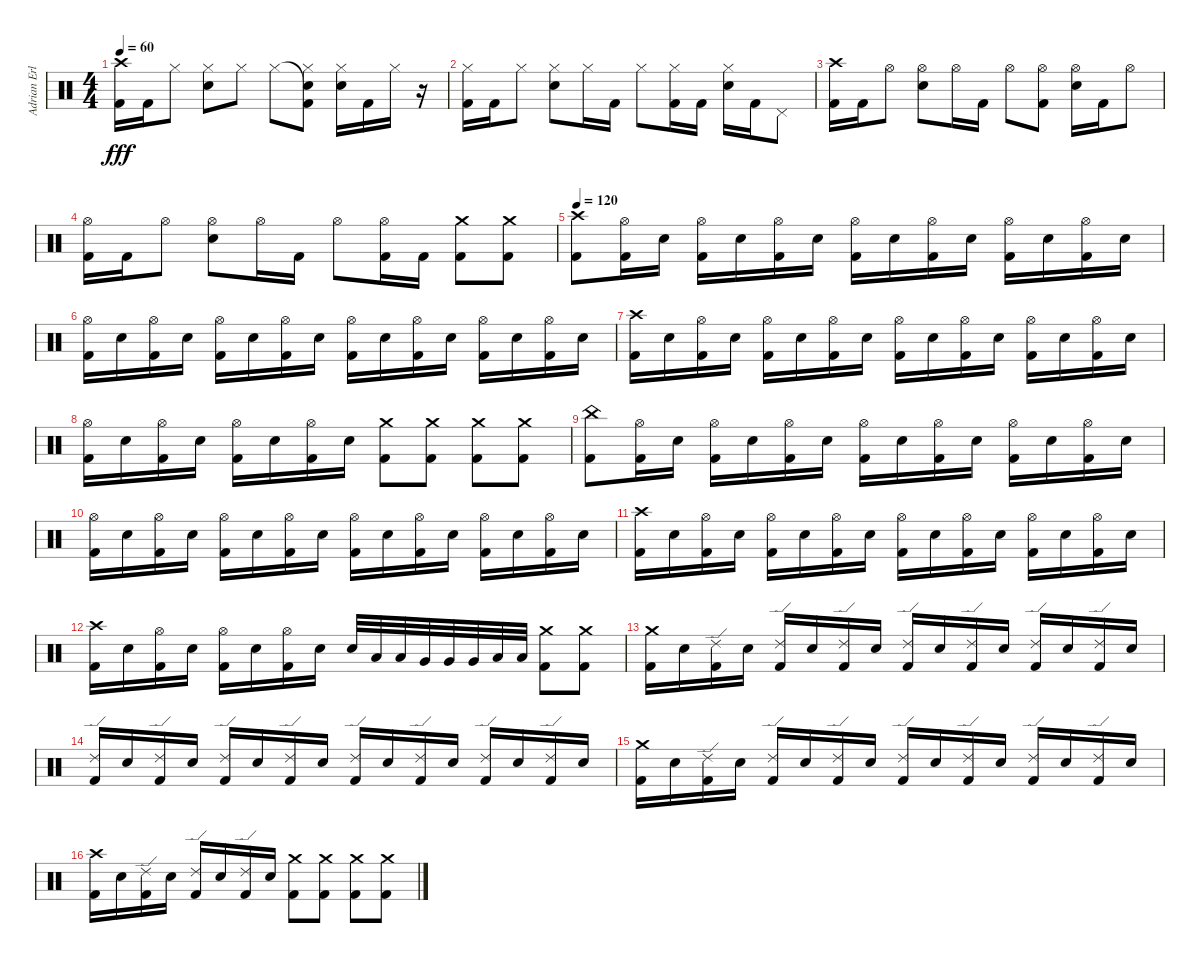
\track ("Adrian Erlandsson" "Adrian Erl") {instrument percussion}
\staff {score}
\articulation defaults
\ts (4 4)
\tempo 60
\clef neutral
\ks c
("Crash high (hit)" "Kick (hit) 2").16{dy fff} "Kick (hit) 2".16 "Hi-Hat (closed)".8 ("Hi-Hat (closed)" "Electric Snare (hit)").8 "Hi-Hat (closed)".8 "Hi-Hat (closed)".8 ("Snare (hit)"{t} "Hi-Hat (closed)" "Kick (hit) 2").8 ("Hi-Hat (closed)" "Electric Snare (hit)").16 "Kick (hit) 2".16 "Hi-Hat (closed)".16 r.16 |
("Hi-Hat (closed)" "Kick (hit) 2").16 "Kick (hit) 2".16 "Hi-Hat (closed)".8 ("Hi-Hat (closed)" "Electric Snare (hit)").8 "Hi-Hat (closed)".16 "Kick (hit) 2".16 "Hi-Hat (closed)".8 ("Hi-Hat (closed)" "Kick (hit) 2").16 "Kick (hit) 2".16 ("Hi-Hat (closed)" "Electric Snare (hit)").16 "Kick (hit) 2".16 "Pedal Hi-Hat (hit)".8 |
("Crash high (hit)" "Kick (hit) 2").16 "Kick (hit) 2".16 "Hi-Hat (open)".8 ("Hi-Hat (open)" "Electric Snare (hit)").8 "Hi-Hat (open)".16 "Kick (hit) 2".16 "Hi-Hat (open)".8 ("Hi-Hat (open)" "Kick (hit) 2").8 ("Hi-Hat (open)" "Electric Snare (hit)").16 "Kick (hit) 2".16 "Hi-Hat (open)".8 |
("Hi-Hat (open)" "Kick (hit) 2").16 "Kick (hit) 2".16 "Hi-Hat (open)".8 ("Hi-Hat (open)" "Electric Snare (hit)").8 "Hi-Hat (open)".16 "Kick (hit) 2".16 "Hi-Hat (open)".8 ("Hi-Hat (open)" "Kick (hit) 2").16 "Kick (hit) 2".16 ("Crash medium (hit)" "Kick (hit) 2").8 ("Crash medium (hit)" "Kick (hit) 2").8 |
\tempo 120
("Crash high (hit)" "Kick (hit) 2").8 ("Hi-Hat (open)" "Kick (hit) 2").16 "Electric Snare (hit)".16 ("Hi-Hat (open)" "Kick (hit) 2").16 "Electric Snare (hit)".16 ("Hi-Hat (open)" "Kick (hit) 2").16 "Electric Snare (hit)".16 ("Hi-Hat (open)" "Kick (hit) 2").16 "Electric Snare (hit)".16 ("Hi-Hat (open)" "Kick (hit) 2").16 "Electric Snare (hit)".16 ("Hi-Hat (open)" "Kick (hit) 2").16 "Electric Snare (hit)".16 ("Hi-Hat (open)" "Kick (hit) 2").16 "Electric Snare (hit)".16 |
("Hi-Hat (open)" "Kick (hit) 2").16 "Electric Snare (hit)".16 ("Hi-Hat (open)" "Kick (hit) 2").16 "Electric Snare (hit)".16 ("Hi-Hat (open)" "Kick (hit) 2").16 "Electric Snare (hit)".16 ("Hi-Hat (open)" "Kick (hit) 2").16 "Electric Snare (hit)".16 ("Hi-Hat (open)" "Kick (hit) 2").16 "Electric Snare (hit)".16 ("Hi-Hat (open)" "Kick (hit) 2").16 "Electric Snare (hit)".16 ("Hi-Hat (open)" "Kick (hit) 2").16 "Electric Snare (hit)".16 ("Hi-Hat (open)" "Kick (hit) 2").16 "Electric Snare (hit)".16 |
("Crash high (hit)" "Kick (hit) 2").16 "Electric Snare (hit)".16 ("Hi-Hat (open)" "Kick (hit) 2").16 "Electric Snare (hit)".16 ("Hi-Hat (open)" "Kick (hit) 2").16 "Electric Snare (hit)".16 ("Hi-Hat (open)" "Kick (hit) 2").16 "Electric Snare (hit)".16 ("Hi-Hat (open)" "Kick (hit) 2").16 "Electric Snare (hit)".16 ("Hi-Hat (open)" "Kick (hit) 2").16 "Electric Snare (hit)".16 ("Hi-Hat (open)" "Kick (hit) 2").16 "Electric Snare (hit)".16 ("Hi-Hat (open)" "Kick (hit) 2").16 "Electric Snare (hit)".16 |
("Hi-Hat (open)" "Kick (hit) 2").16 "Electric Snare (hit)".16 ("Hi-Hat (open)" "Kick (hit) 2").16 "Electric Snare (hit)".16 ("Hi-Hat (open)" "Kick (hit) 2").16 "Electric Snare (hit)".16 ("Hi-Hat (open)" "Kick (hit) 2").16 "Electric Snare (hit)".16 ("Crash medium (hit)" "Kick (hit) 2").8 ("Crash medium (hit)" "Kick (hit) 2").8 ("Crash medium (hit)" "Kick (hit) 2").8 ("Crash medium (hit)" "Kick (hit) 2").8 |
("China (hit)" "Kick (hit) 2").8 ("Hi-Hat (open)" "Kick (hit) 2").16 "Electric Snare (hit)".16 ("Hi-Hat (open)" "Kick (hit) 2").16 "Electric Snare (hit)".16 ("Hi-Hat (open)" "Kick (hit) 2").16 "Electric Snare (hit)".16 ("Hi-Hat (open)" "Kick (hit) 2").16 "Electric Snare (hit)".16 ("Hi-Hat (open)" "Kick (hit) 2").16 "Electric Snare (hit)".16 ("Hi-Hat (open)" "Kick (hit) 2").16 "Electric Snare (hit)".16 ("Hi-Hat (open)" "Kick (hit) 2").16 "Electric Snare (hit)".16 |
("Hi-Hat (open)" "Kick (hit) 2").16 "Electric Snare (hit)".16 ("Hi-Hat (open)" "Kick (hit) 2").16 "Electric Snare (hit)".16 ("Hi-Hat (open)" "Kick (hit) 2").16 "Electric Snare (hit)".16 ("Hi-Hat (open)" "Kick (hit) 2").16 "Electric Snare (hit)".16 ("Hi-Hat (open)" "Kick (hit) 2").16 "Electric Snare (hit)".16 ("Hi-Hat (open)" "Kick (hit) 2").16 "Electric Snare (hit)".16 ("Hi-Hat (open)" "Kick (hit) 2").16 "Electric Snare (hit)".16 ("Hi-Hat (open)" "Kick (hit) 2").16 "Electric Snare (hit)".16 |
("Crash high (hit)" "Kick (hit) 2").16 "Electric Snare (hit)".16 ("Hi-Hat (open)" "Kick (hit) 2").16 "Electric Snare (hit)".16 ("Hi-Hat (open)" "Kick (hit) 2").16 "Electric Snare (hit)".16 ("Hi-Hat (open)" "Kick (hit) 2").16 "Electric Snare (hit)".16 ("Hi-Hat (open)" "Kick (hit) 2").16 "Electric Snare (hit)".16 ("Hi-Hat (open)" "Kick (hit) 2").16 "Electric Snare (hit)".16 ("Hi-Hat (open)" "Kick (hit) 2").16 "Electric Snare (hit)".16 ("Hi-Hat (open)" "Kick (hit) 2").16 "Electric Snare (hit)".16 |
("Crash high (hit)" "Kick (hit) 2").16 "Electric Snare (hit)".16 ("Hi-Hat (open)" "Kick (hit) 2").16 "Electric Snare (hit)".16 ("Hi-Hat (open)" "Kick (hit) 2").16 "Electric Snare (hit)".16 ("Hi-Hat (open)" "Kick (hit) 2").16 "Electric Snare (hit)".16 "Electric Snare (hit)".32 "Low Tom (hit)".32 "Low Tom (hit)".32 "Very Low Tom (hit)".32 "Very Low Tom (hit)".32 "Very Low Tom (hit)".32 "Low Floor Tom (hit)".32 "Low Floor Tom (hit)".32 ("Crash medium (hit)" "Kick (hit) 2").8 ("Crash medium (hit)" "Kick (hit) 2").8 |
("Crash medium (hit)" "Kick (hit) 2").16 "Electric Snare (hit)".16 ("Ride (edge) 2" "Kick (hit) 2").16 "Electric Snare (hit)".16 ("Ride (edge) 2" "Kick (hit) 2").16 "Electric Snare (hit)".16 ("Ride (edge) 2" "Kick (hit) 2").16 "Electric Snare (hit)".16 ("Ride (edge) 2" "Kick (hit) 2").16 "Electric Snare (hit)".16 ("Ride (edge) 2" "Kick (hit) 2").16 "Electric Snare (hit)".16 ("Ride (edge) 2" "Kick (hit) 2").16 "Electric Snare (hit)".16 ("Ride (edge) 2" "Kick (hit) 2").16 "Electric Snare (hit)".16 |
("Ride (edge) 2" "Kick (hit) 2").16 "Electric Snare (hit)".16 ("Ride (edge) 2" "Kick (hit) 2").16 "Electric Snare (hit)".16 ("Ride (edge) 2" "Kick (hit) 2").16 "Electric Snare (hit)".16 ("Ride (edge) 2" "Kick (hit) 2").16 "Electric Snare (hit)".16 ("Ride (edge) 2" "Kick (hit) 2").16 "Electric Snare (hit)".16 ("Ride (edge) 2" "Kick (hit) 2").16 "Electric Snare (hit)".16 ("Ride (edge) 2" "Kick (hit) 2").16 "Electric Snare (hit)".16 ("Ride (edge) 2" "Kick (hit) 2").16 "Electric Snare (hit)".16 |
("Crash medium (hit)" "Kick (hit) 2").16 "Electric Snare (hit)".16 ("Ride (edge) 2" "Kick (hit) 2").16 "Electric Snare (hit)".16 ("Ride (edge) 2" "Kick (hit) 2").16 "Electric Snare (hit)".16 ("Ride (edge) 2" "Kick (hit) 2").16 "Electric Snare (hit)".16 ("Ride (edge) 2" "Kick (hit) 2").16 "Electric Snare (hit)".16 ("Ride (edge) 2" "Kick (hit) 2").16 "Electric Snare (hit)".16 ("Ride (edge) 2" "Kick (hit) 2").16 "Electric Snare (hit)".16 ("Ride (edge) 2" "Kick (hit) 2").16 "Electric Snare (hit)".16 |
("Crash high (hit)" "Kick (hit) 2").16 "Electric Snare (hit)".16 ("Ride (edge) 2" "Kick (hit) 2").16 "Electric Snare (hit)".16 ("Ride (edge) 2" "Kick (hit) 2").16 "Electric Snare (hit)".16 ("Ride (edge) 2" "Kick (hit) 2").16 "Electric Snare (hit)".16 ("Crash medium (hit)" "Kick (hit) 2").8 ("Crash medium (hit)" "Kick (hit) 2").8 ("Crash medium (hit)" "Kick (hit) 2").8 ("Crash medium (hit)" "Kick (hit) 2").8
